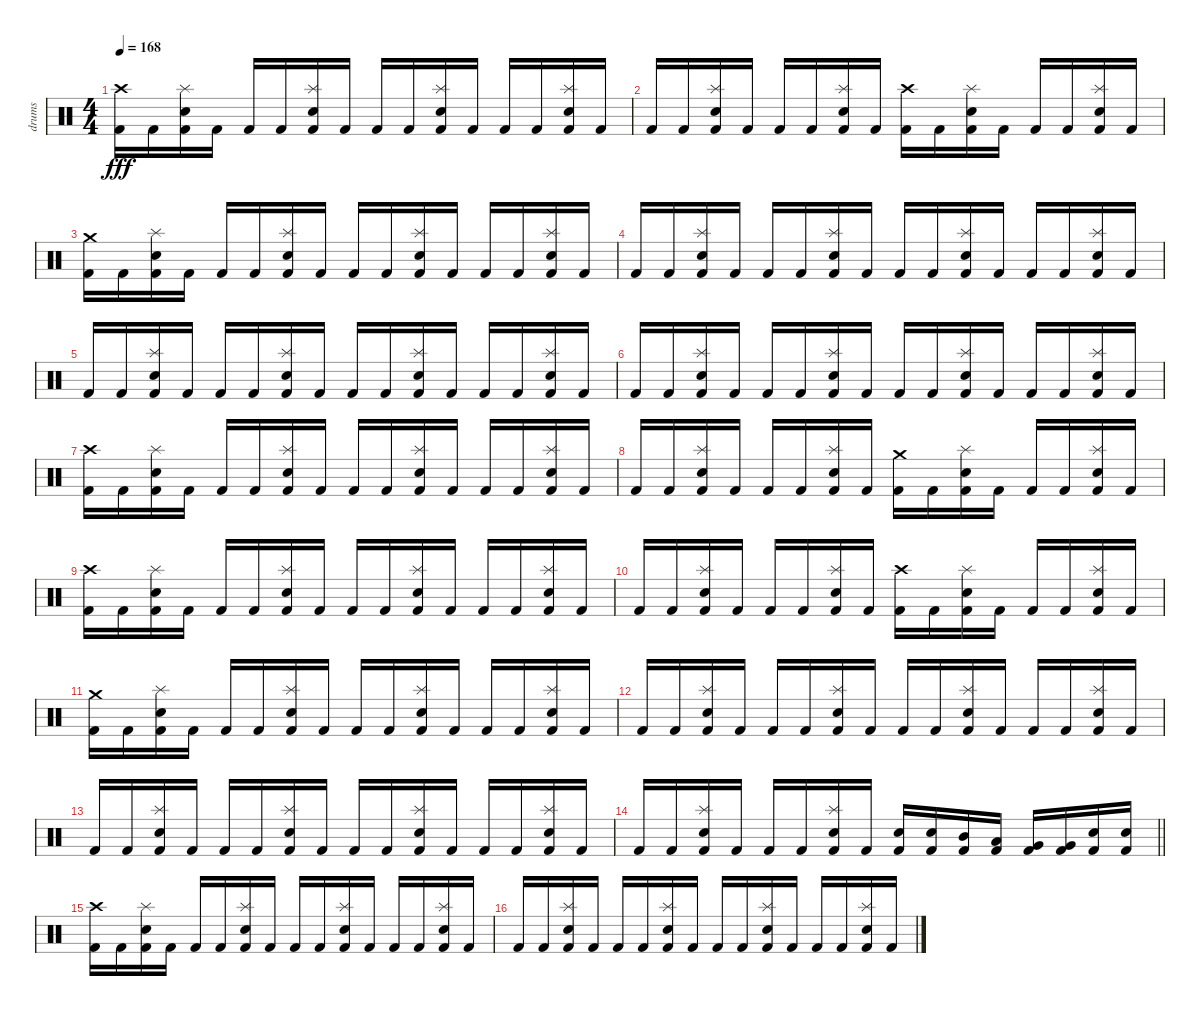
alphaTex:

\track ("drums" "drums") {instrument percussion}
\staff {score}
\articulation defaults
\ts (4 4)
\tempo 168
\clef neutral
\ks c
("Crash high (hit)" "Kick (hit) 2").16{dy fff} "Kick (hit) 2".16 ("Splash (hit)" "Snare (hit) 2" "Kick (hit) 2").16 "Kick (hit) 2".16 "Kick (hit) 2".16 "Kick (hit) 2".16 ("Splash (hit)" "Snare (hit) 2" "Kick (hit) 2").16 "Kick (hit) 2".16 "Kick (hit) 2".16 "Kick (hit) 2".16 ("Splash (hit)" "Snare (hit) 2" "Kick (hit) 2").16 "Kick (hit) 2".16 "Kick (hit) 2".16 "Kick (hit) 2".16 ("Splash (hit)" "Snare (hit) 2" "Kick (hit) 2").16 "Kick (hit) 2".16 |
"Kick (hit) 2".16 "Kick (hit) 2".16 ("Splash (hit)" "Snare (hit) 2" "Kick (hit) 2").16 "Kick (hit) 2".16 "Kick (hit) 2".16 "Kick (hit) 2".16 ("Splash (hit)" "Snare (hit) 2" "Kick (hit) 2").16 "Kick (hit) 2".16 ("Crash high (hit)" "Kick (hit) 2").16 "Kick (hit) 2".16 ("Splash (hit)" "Snare (hit) 2" "Kick (hit) 2").16 "Kick (hit) 2".16 "Kick (hit) 2".16 "Kick (hit) 2".16 ("Splash (hit)" "Snare (hit) 2" "Kick (hit) 2").16 "Kick (hit) 2".16 |
("Crash medium (hit)" "Kick (hit) 2").16 "Kick (hit) 2".16 ("Splash (hit)" "Snare (hit) 2" "Kick (hit) 2").16 "Kick (hit) 2".16 "Kick (hit) 2".16 "Kick (hit) 2".16 ("Splash (hit)" "Snare (hit) 2" "Kick (hit) 2").16 "Kick (hit) 2".16 "Kick (hit) 2".16 "Kick (hit) 2".16 ("Splash (hit)" "Snare (hit) 2" "Kick (hit) 2").16 "Kick (hit) 2".16 "Kick (hit) 2".16 "Kick (hit) 2".16 ("Splash (hit)" "Snare (hit) 2" "Kick (hit) 2").16 "Kick (hit) 2".16 |
"Kick (hit) 2".16 "Kick (hit) 2".16 ("Splash (hit)" "Snare (hit) 2" "Kick (hit) 2").16 "Kick (hit) 2".16 "Kick (hit) 2".16 "Kick (hit) 2".16 ("Splash (hit)" "Snare (hit) 2" "Kick (hit) 2").16 "Kick (hit) 2".16 "Kick (hit) 2".16 "Kick (hit) 2".16 ("Splash (hit)" "Snare (hit) 2" "Kick (hit) 2").16 "Kick (hit) 2".16 "Kick (hit) 2".16 "Kick (hit) 2".16 ("Splash (hit)" "Snare (hit) 2" "Kick (hit) 2").16 "Kick (hit) 2".16 |
"Kick (hit) 2".16 "Kick (hit) 2".16 ("Splash (hit)" "Snare (hit) 2" "Kick (hit) 2").16 "Kick (hit) 2".16 "Kick (hit) 2".16 "Kick (hit) 2".16 ("Splash (hit)" "Snare (hit) 2" "Kick (hit) 2").16 "Kick (hit) 2".16 "Kick (hit) 2".16 "Kick (hit) 2".16 ("Splash (hit)" "Snare (hit) 2" "Kick (hit) 2").16 "Kick (hit) 2".16 "Kick (hit) 2".16 "Kick (hit) 2".16 ("Splash (hit)" "Snare (hit) 2" "Kick (hit) 2").16 "Kick (hit) 2".16 |
"Kick (hit) 2".16 "Kick (hit) 2".16 ("Splash (hit)" "Snare (hit) 2" "Kick (hit) 2").16 "Kick (hit) 2".16 "Kick (hit) 2".16 "Kick (hit) 2".16 ("Splash (hit)" "Snare (hit) 2" "Kick (hit) 2").16 "Kick (hit) 2".16 "Kick (hit) 2".16 "Kick (hit) 2".16 ("Splash (hit)" "Snare (hit) 2" "Kick (hit) 2").16 "Kick (hit) 2".16 "Kick (hit) 2".16 "Kick (hit) 2".16 ("Splash (hit)" "Snare (hit) 2" "Kick (hit) 2").16 "Kick (hit) 2".16 |
("Crash high (hit)" "Kick (hit) 2").16 "Kick (hit) 2".16 ("Splash (hit)" "Snare (hit) 2" "Kick (hit) 2").16 "Kick (hit) 2".16 "Kick (hit) 2".16 "Kick (hit) 2".16 ("Splash (hit)" "Snare (hit) 2" "Kick (hit) 2").16 "Kick (hit) 2".16 "Kick (hit) 2".16 "Kick (hit) 2".16 ("Splash (hit)" "Snare (hit) 2" "Kick (hit) 2").16 "Kick (hit) 2".16 "Kick (hit) 2".16 "Kick (hit) 2".16 ("Splash (hit)" "Snare (hit) 2" "Kick (hit) 2").16 "Kick (hit) 2".16 |
"Kick (hit) 2".16 "Kick (hit) 2".16 ("Splash (hit)" "Snare (hit) 2" "Kick (hit) 2").16 "Kick (hit) 2".16 "Kick (hit) 2".16 "Kick (hit) 2".16 ("Splash (hit)" "Snare (hit) 2" "Kick (hit) 2").16 "Kick (hit) 2".16 ("Crash medium (hit)" "Kick (hit) 2").16 "Kick (hit) 2".16 ("Splash (hit)" "Snare (hit) 2" "Kick (hit) 2").16 "Kick (hit) 2".16 "Kick (hit) 2".16 "Kick (hit) 2".16 ("Splash (hit)" "Snare (hit) 2" "Kick (hit) 2").16 "Kick (hit) 2".16 |
("Crash high (hit)" "Kick (hit) 2").16 "Kick (hit) 2".16 ("Splash (hit)" "Snare (hit) 2" "Kick (hit) 2").16 "Kick (hit) 2".16 "Kick (hit) 2".16 "Kick (hit) 2".16 ("Splash (hit)" "Snare (hit) 2" "Kick (hit) 2").16 "Kick (hit) 2".16 "Kick (hit) 2".16 "Kick (hit) 2".16 ("Splash (hit)" "Snare (hit) 2" "Kick (hit) 2").16 "Kick (hit) 2".16 "Kick (hit) 2".16 "Kick (hit) 2".16 ("Splash (hit)" "Snare (hit) 2" "Kick (hit) 2").16 "Kick (hit) 2".16 |
"Kick (hit) 2".16 "Kick (hit) 2".16 ("Splash (hit)" "Snare (hit) 2" "Kick (hit) 2").16 "Kick (hit) 2".16 "Kick (hit) 2".16 "Kick (hit) 2".16 ("Splash (hit)" "Snare (hit) 2" "Kick (hit) 2").16 "Kick (hit) 2".16 ("Crash high (hit)" "Kick (hit) 2").16 "Kick (hit) 2".16 ("Splash (hit)" "Snare (hit) 2" "Kick (hit) 2").16 "Kick (hit) 2".16 "Kick (hit) 2".16 "Kick (hit) 2".16 ("Splash (hit)" "Snare (hit) 2" "Kick (hit) 2").16 "Kick (hit) 2".16 |
("Crash medium (hit)" "Kick (hit) 2").16 "Kick (hit) 2".16 ("Splash (hit)" "Snare (hit) 2" "Kick (hit) 2").16 "Kick (hit) 2".16 "Kick (hit) 2".16 "Kick (hit) 2".16 ("Splash (hit)" "Snare (hit) 2" "Kick (hit) 2").16 "Kick (hit) 2".16 "Kick (hit) 2".16 "Kick (hit) 2".16 ("Splash (hit)" "Snare (hit) 2" "Kick (hit) 2").16 "Kick (hit) 2".16 "Kick (hit) 2".16 "Kick (hit) 2".16 ("Splash (hit)" "Snare (hit) 2" "Kick (hit) 2").16 "Kick (hit) 2".16 |
"Kick (hit) 2".16 "Kick (hit) 2".16 ("Splash (hit)" "Snare (hit) 2" "Kick (hit) 2").16 "Kick (hit) 2".16 "Kick (hit) 2".16 "Kick (hit) 2".16 ("Splash (hit)" "Snare (hit) 2" "Kick (hit) 2").16 "Kick (hit) 2".16 "Kick (hit) 2".16 "Kick (hit) 2".16 ("Splash (hit)" "Snare (hit) 2" "Kick (hit) 2").16 "Kick (hit) 2".16 "Kick (hit) 2".16 "Kick (hit) 2".16 ("Splash (hit)" "Snare (hit) 2" "Kick (hit) 2").16 "Kick (hit) 2".16 |
"Kick (hit) 2".16 "Kick (hit) 2".16 ("Splash (hit)" "Snare (hit) 2" "Kick (hit) 2").16 "Kick (hit) 2".16 "Kick (hit) 2".16 "Kick (hit) 2".16 ("Splash (hit)" "Snare (hit) 2" "Kick (hit) 2").16 "Kick (hit) 2".16 "Kick (hit) 2".16 "Kick (hit) 2".16 ("Splash (hit)" "Snare (hit) 2" "Kick (hit) 2").16 "Kick (hit) 2".16 "Kick (hit) 2".16 "Kick (hit) 2".16 ("Splash (hit)" "Snare (hit) 2" "Kick (hit) 2").16 "Kick (hit) 2".16 |
\barLineRight lightlight "Kick (hit) 2".16 "Kick (hit) 2".16
("Splash (hit)" "Snare (hit) 2" "Kick (hit) 2").16 "Kick (hit) 2".16 "Kick (hit) 2".16 "Kick (hit) 2".16 ("Splash (hit)" "Snare (hit) 2" "Kick (hit) 2").16 "Kick (hit) 2".16 ("Snare (hit) 2" "Kick (hit) 2").16 ("Snare (hit) 2" "Kick (hit) 2").16 ("Mid Tom (hit)" "Kick (hit) 2").16 ("Low Tom (hit)" "Kick (hit) 2").16 ("Very Low Tom (hit)" "Kick (hit) 2").16 ("Very Low Tom (hit)" "Kick (hit) 2").16 ("Snare (hit) 2" "Kick (hit) 2").16 ("Snare (hit) 2" "Kick (hit) 2").16 |
("Crash high (hit)" "Kick (hit) 2").16 "Kick (hit) 2".16 ("Splash (hit)" "Snare (hit) 2" "Kick (hit) 2").16 "Kick (hit) 2".16 "Kick (hit) 2".16 "Kick (hit) 2".16 ("Splash (hit)" "Snare (hit) 2" "Kick (hit) 2").16 "Kick (hit) 2".16 "Kick (hit) 2".16 "Kick (hit) 2".16 ("Splash (hit)" "Snare (hit) 2" "Kick (hit) 2").16 "Kick (hit) 2".16 "Kick (hit) 2".16 "Kick (hit) 2".16 ("Splash (hit)" "Snare (hit) 2" "Kick (hit) 2").16 "Kick (hit) 2".16 |
"Kick (hit) 2".16 "Kick (hit) 2".16 ("Splash (hit)" "Snare (hit) 2" "Kick (hit) 2").16 "Kick (hit) 2".16 "Kick (hit) 2".16 "Kick (hit) 2".16 ("Splash (hit)" "Snare (hit) 2" "Kick (hit) 2").16 "Kick (hit) 2".16 "Kick (hit) 2".16 "Kick (hit) 2".16 ("Splash (hit)" "Snare (hit) 2" "Kick (hit) 2").16 "Kick (hit) 2".16 "Kick (hit) 2".16 "Kick (hit) 2".16 ("Splash (hit)" "Snare (hit) 2" "Kick (hit) 2").16 "Kick (hit) 2".16
